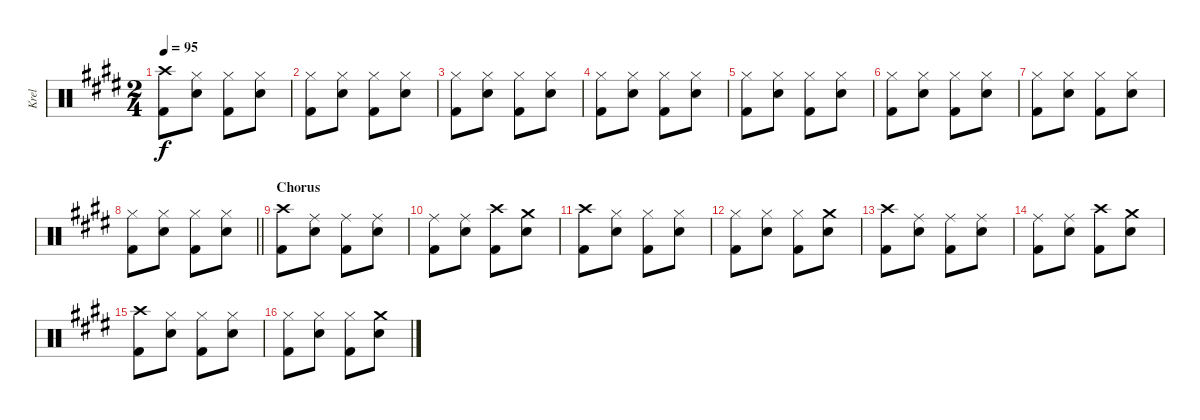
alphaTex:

\track ("Krel" "Krel") {instrument percussion}
\staff {score}
\articulation defaults
\ts (2 4)
\tempo 95
\clef neutral
\ks e
("Crash high (hit)" "Kick (hit) 2").8{dy f} ("Hi-Hat (closed)" "Snare (hit) 2").8 ("Hi-Hat (closed)" "Kick (hit) 2").8 ("Hi-Hat (closed)" "Snare (hit) 2").8 |
("Hi-Hat (closed)" "Kick (hit) 2").8 ("Hi-Hat (closed)" "Snare (hit) 2").8 ("Hi-Hat (closed)" "Kick (hit) 2").8 ("Hi-Hat (closed)" "Snare (hit) 2").8 |
("Hi-Hat (closed)" "Kick (hit) 2").8 ("Hi-Hat (closed)" "Snare (hit) 2").8 ("Hi-Hat (closed)" "Kick (hit) 2").8 ("Hi-Hat (closed)" "Snare (hit) 2").8 |
("Hi-Hat (closed)" "Kick (hit) 2").8 ("Hi-Hat (closed)" "Snare (hit) 2").8 ("Hi-Hat (closed)" "Kick (hit) 2").8 ("Hi-Hat (closed)" "Snare (hit) 2").8 |
("Hi-Hat (closed)" "Kick (hit) 2").8 ("Hi-Hat (closed)" "Snare (hit) 2").8 ("Hi-Hat (closed)" "Kick (hit) 2").8 ("Hi-Hat (closed)" "Snare (hit) 2").8 |
("Hi-Hat (closed)" "Kick (hit) 2").8 ("Hi-Hat (closed)" "Snare (hit) 2").8 ("Hi-Hat (closed)" "Kick (hit) 2").8 ("Hi-Hat (closed)" "Snare (hit) 2").8 |
("Hi-Hat (closed)" "Kick (hit) 2").8 ("Hi-Hat (closed)" "Snare (hit) 2").8 ("Hi-Hat (closed)" "Kick (hit) 2").8 ("Hi-Hat (closed)" "Snare (hit) 2").8 |
\barLineRight lightlight
("Hi-Hat (closed)" "Kick (hit) 2").8 ("Hi-Hat (closed)" "Snare (hit) 2").8 ("Hi-Hat (closed)" "Kick (hit) 2").8 ("Hi-Hat (closed)" "Snare (hit) 2").8 |
\section ("" "Chorus")
("Crash high (hit)" "Kick (hit) 2").8 ("Ride (middle)" "Snare (hit) 2").8 ("Ride (middle)" "Kick (hit) 2").8 ("Ride (middle)" "Snare (hit) 2").8 |
("Ride (middle)" "Kick (hit) 2").8 ("Ride (middle)" "Snare (hit) 2").8 ("Crash high (hit)" "Kick (hit) 2").8 ("Crash medium (hit)" "Snare (hit) 2").8 |
("Crash high (hit)" "Kick (hit) 2").8 ("Hi-Hat (closed)" "Snare (hit) 2").8 ("Hi-Hat (closed)" "Kick (hit) 2").8 ("Hi-Hat (closed)" "Snare (hit) 2").8 |
("Hi-Hat (closed)" "Kick (hit) 2").8 ("Hi-Hat (closed)" "Snare (hit) 2").8 ("Hi-Hat (closed)" "Kick (hit) 2").8 ("Crash medium (hit)" "Snare (hit) 2").8 |
("Crash high (hit)" "Kick (hit) 2").8 ("Ride (middle)" "Snare (hit) 2").8 ("Ride (middle)" "Kick (hit) 2").8 ("Ride (middle)" "Snare (hit) 2").8 |
("Ride (middle)" "Kick (hit) 2").8 ("Ride (middle)" "Snare (hit) 2").8 ("Crash high (hit)" "Kick (hit) 2").8 ("Crash medium (hit)" "Snare (hit) 2").8 |
("Crash high (hit)" "Kick (hit) 2").8 ("Hi-Hat (closed)" "Snare (hit) 2").8 ("Hi-Hat (closed)" "Kick (hit) 2").8 ("Hi-Hat (closed)" "Snare (hit) 2").8 |
("Hi-Hat (closed)" "Kick (hit) 2").8 ("Hi-Hat (closed)" "Snare (hit) 2").8 ("Hi-Hat (closed)" "Kick (hit) 2").8 ("Crash medium (hit)" "Snare (hit) 2").8
